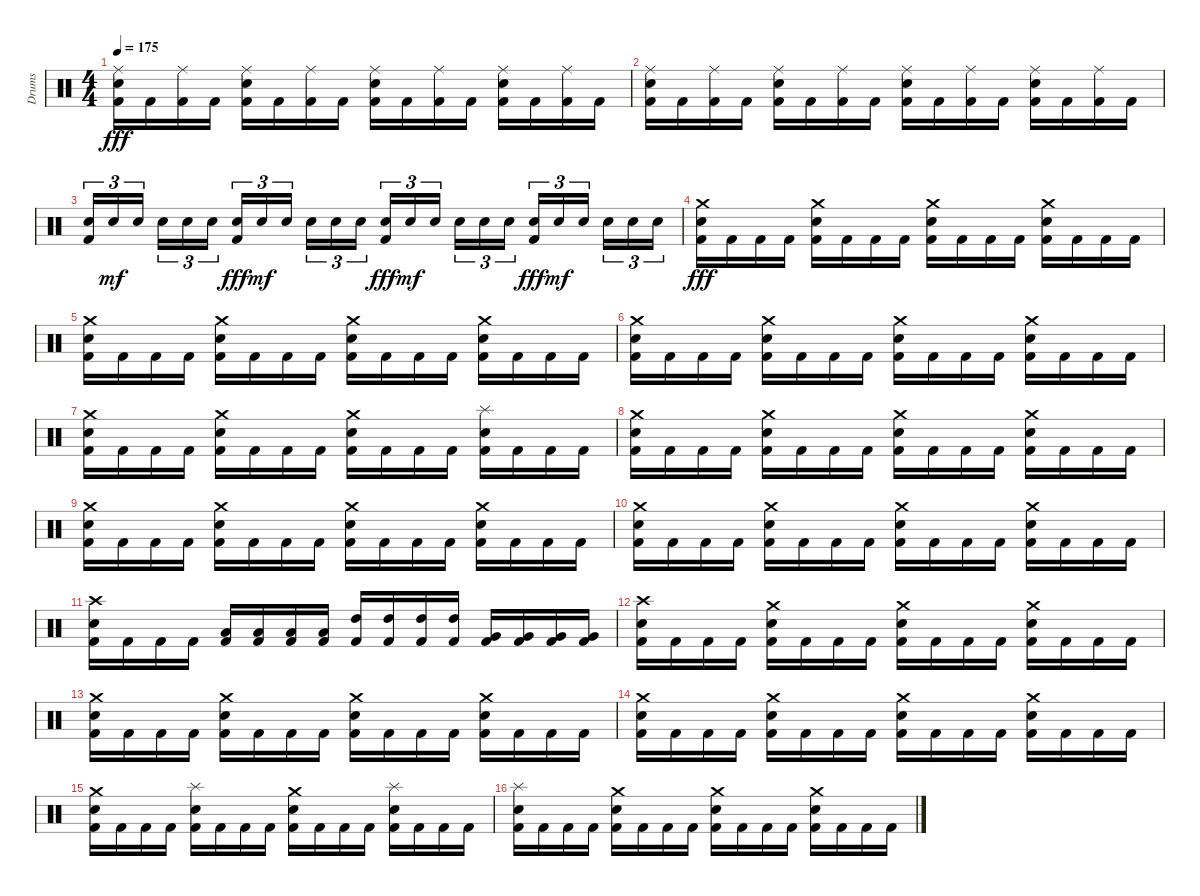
\track ("Drums" "Drums") {instrument percussion}
\staff {score}
\articulation defaults
\ts (4 4)
\tempo 175
\clef neutral
\ks c
("Ride (middle)" "Electric Snare (hit)" "Kick (hit) 2").16{dy fff} "Kick (hit) 2".16 ("Ride (middle)" "Kick (hit) 2").16 "Kick (hit) 2".16 ("Ride (middle)" "Electric Snare (hit)" "Kick (hit) 2").16 "Kick (hit) 2".16 ("Ride (middle)" "Kick (hit) 2").16 "Kick (hit) 2".16 ("Ride (middle)" "Electric Snare (hit)" "Kick (hit) 2").16 "Kick (hit) 2".16 ("Ride (middle)" "Kick (hit) 2").16 "Kick (hit) 2".16 ("Ride (middle)" "Electric Snare (hit)" "Kick (hit) 2").16 "Kick (hit) 2".16 ("Ride (middle)" "Kick (hit) 2").16 "Kick (hit) 2".16 |
("Ride (middle)" "Electric Snare (hit)" "Kick (hit) 2").16 "Kick (hit) 2".16 ("Ride (middle)" "Kick (hit) 2").16 "Kick (hit) 2".16 ("Ride (middle)" "Electric Snare (hit)" "Kick (hit) 2").16 "Kick (hit) 2".16 ("Ride (middle)" "Kick (hit) 2").16 "Kick (hit) 2".16 ("Ride (middle)" "Electric Snare (hit)" "Kick (hit) 2").16 "Kick (hit) 2".16 ("Ride (middle)" "Kick (hit) 2").16 "Kick (hit) 2".16 ("Ride (middle)" "Electric Snare (hit)" "Kick (hit) 2").16 "Kick (hit) 2".16 ("Ride (middle)" "Kick (hit) 2").16 "Kick (hit) 2".16 |
("Electric Snare (hit)" "Kick (hit) 2").16{tu (3 2)} "Electric Snare (hit)".16{tu (3 2) dy mf} "Electric Snare (hit)".16{tu (3 2) beam splitsecondary} "Electric Snare (hit)".16{tu (3 2)} "Electric Snare (hit)".16{tu (3 2)} "Electric Snare (hit)".16{tu (3 2)} ("Electric Snare (hit)" "Kick (hit) 2").16{tu (3 2) dy fff} "Electric Snare (hit)".16{tu (3 2) dy mf} "Electric Snare (hit)".16{tu (3 2) beam splitsecondary} "Electric Snare (hit)".16{tu (3 2)} "Electric Snare (hit)".16{tu (3 2)} "Electric Snare (hit)".16{tu (3 2)} ("Electric Snare (hit)" "Kick (hit) 2").16{tu (3 2) dy fff} "Electric Snare (hit)".16{tu (3 2) dy mf} "Electric Snare (hit)".16{tu (3 2) beam splitsecondary} "Electric Snare (hit)".16{tu (3 2)} "Electric Snare (hit)".16{tu (3 2)} "Electric Snare (hit)".16{tu (3 2)} ("Electric Snare (hit)" "Kick (hit) 2").16{tu (3 2) dy fff} "Electric Snare (hit)".16{tu (3 2) dy mf} "Electric Snare (hit)".16{tu (3 2) beam splitsecondary} "Electric Snare (hit)".16{tu (3 2)} "Electric Snare (hit)".16{tu (3 2)} "Electric Snare (hit)".16{tu (3 2)} |
("Crash medium (hit)" "Electric Snare (hit)" "Kick (hit) 2").16{dy fff} "Kick (hit) 2".16 "Kick (hit) 2".16 "Kick (hit) 2".16 ("Crash medium (hit)" "Electric Snare (hit)" "Kick (hit) 2").16 "Kick (hit) 2".16 "Kick (hit) 2".16 "Kick (hit) 2".16 ("Crash medium (hit)" "Electric Snare (hit)" "Kick (hit) 2").16 "Kick (hit) 2".16 "Kick (hit) 2".16 "Kick (hit) 2".16 ("Crash medium (hit)" "Electric Snare (hit)" "Kick (hit) 2").16 "Kick (hit) 2".16 "Kick (hit) 2".16 "Kick (hit) 2".16 |
("Crash medium (hit)" "Electric Snare (hit)" "Kick (hit) 2").16 "Kick (hit) 2".16 "Kick (hit) 2".16 "Kick (hit) 2".16 ("Crash medium (hit)" "Electric Snare (hit)" "Kick (hit) 2").16 "Kick (hit) 2".16 "Kick (hit) 2".16 "Kick (hit) 2".16 ("Crash medium (hit)" "Electric Snare (hit)" "Kick (hit) 2").16 "Kick (hit) 2".16 "Kick (hit) 2".16 "Kick (hit) 2".16 ("Crash medium (hit)" "Electric Snare (hit)" "Kick (hit) 2").16 "Kick (hit) 2".16 "Kick (hit) 2".16 "Kick (hit) 2".16 |
("Crash medium (hit)" "Electric Snare (hit)" "Kick (hit) 2").16 "Kick (hit) 2".16 "Kick (hit) 2".16 "Kick (hit) 2".16 ("Crash medium (hit)" "Electric Snare (hit)" "Kick (hit) 2").16 "Kick (hit) 2".16 "Kick (hit) 2".16 "Kick (hit) 2".16 ("Crash medium (hit)" "Electric Snare (hit)" "Kick (hit) 2").16 "Kick (hit) 2".16 "Kick (hit) 2".16 "Kick (hit) 2".16 ("Crash medium (hit)" "Electric Snare (hit)" "Kick (hit) 2").16 "Kick (hit) 2".16 "Kick (hit) 2".16 "Kick (hit) 2".16 |
("Crash medium (hit)" "Electric Snare (hit)" "Kick (hit) 2").16 "Kick (hit) 2".16 "Kick (hit) 2".16 "Kick (hit) 2".16 ("Crash medium (hit)" "Electric Snare (hit)" "Kick (hit) 2").16 "Kick (hit) 2".16 "Kick (hit) 2".16 "Kick (hit) 2".16 ("Crash medium (hit)" "Electric Snare (hit)" "Kick (hit) 2").16 "Kick (hit) 2".16 "Kick (hit) 2".16 "Kick (hit) 2".16 ("Splash (hit)" "Electric Snare (hit)" "Kick (hit) 2").16 "Kick (hit) 2".16 "Kick (hit) 2".16 "Kick (hit) 2".16 |
("Crash medium (hit)" "Electric Snare (hit)" "Kick (hit) 2").16 "Kick (hit) 2".16 "Kick (hit) 2".16 "Kick (hit) 2".16 ("Crash medium (hit)" "Electric Snare (hit)" "Kick (hit) 2").16 "Kick (hit) 2".16 "Kick (hit) 2".16 "Kick (hit) 2".16 ("Crash medium (hit)" "Electric Snare (hit)" "Kick (hit) 2").16 "Kick (hit) 2".16 "Kick (hit) 2".16 "Kick (hit) 2".16 ("Crash medium (hit)" "Electric Snare (hit)" "Kick (hit) 2").16 "Kick (hit) 2".16 "Kick (hit) 2".16 "Kick (hit) 2".16 |
("Crash medium (hit)" "Electric Snare (hit)" "Kick (hit) 2").16 "Kick (hit) 2".16 "Kick (hit) 2".16 "Kick (hit) 2".16 ("Crash medium (hit)" "Electric Snare (hit)" "Kick (hit) 2").16 "Kick (hit) 2".16 "Kick (hit) 2".16 "Kick (hit) 2".16 ("Crash medium (hit)" "Electric Snare (hit)" "Kick (hit) 2").16 "Kick (hit) 2".16 "Kick (hit) 2".16 "Kick (hit) 2".16 ("Crash medium (hit)" "Electric Snare (hit)" "Kick (hit) 2").16 "Kick (hit) 2".16 "Kick (hit) 2".16 "Kick (hit) 2".16 |
("Crash medium (hit)" "Electric Snare (hit)" "Kick (hit) 2").16 "Kick (hit) 2".16 "Kick (hit) 2".16 "Kick (hit) 2".16 ("Crash medium (hit)" "Electric Snare (hit)" "Kick (hit) 2").16 "Kick (hit) 2".16 "Kick (hit) 2".16 "Kick (hit) 2".16 ("Crash medium (hit)" "Electric Snare (hit)" "Kick (hit) 2").16 "Kick (hit) 2".16 "Kick (hit) 2".16 "Kick (hit) 2".16 ("Crash medium (hit)" "Electric Snare (hit)" "Kick (hit) 2").16 "Kick (hit) 2".16 "Kick (hit) 2".16 "Kick (hit) 2".16 |
("Crash high (hit)" "Electric Snare (hit)" "Kick (hit) 2").16 "Kick (hit) 2".16 "Kick (hit) 2".16 "Kick (hit) 2".16 ("Low Tom (hit)" "Kick (hit) 2").16 ("Low Tom (hit)" "Kick (hit) 2").16 ("Low Tom (hit)" "Kick (hit) 2").16 ("Low Tom (hit)" "Kick (hit) 2").16 ("High Tom (hit)" "Kick (hit) 2").16 ("High Tom (hit)" "Kick (hit) 2").16 ("High Tom (hit)" "Kick (hit) 2").16 ("High Tom (hit)" "Kick (hit) 2").16 ("Very Low Tom (hit)" "Kick (hit) 2").16 ("Very Low Tom (hit)" "Kick (hit) 2").16 ("Very Low Tom (hit)" "Kick (hit) 2").16 ("Very Low Tom (hit)" "Kick (hit) 2").16 |
("Crash high (hit)" "Electric Snare (hit)" "Kick (hit) 2").16 "Kick (hit) 2".16 "Kick (hit) 2".16 "Kick (hit) 2".16 ("Crash medium (hit)" "Electric Snare (hit)" "Kick (hit) 2").16 "Kick (hit) 2".16 "Kick (hit) 2".16 "Kick (hit) 2".16 ("Crash medium (hit)" "Electric Snare (hit)" "Kick (hit) 2").16 "Kick (hit) 2".16 "Kick (hit) 2".16 "Kick (hit) 2".16 ("Crash medium (hit)" "Electric Snare (hit)" "Kick (hit) 2").16 "Kick (hit) 2".16 "Kick (hit) 2".16 "Kick (hit) 2".16 |
("Crash medium (hit)" "Electric Snare (hit)" "Kick (hit) 2").16 "Kick (hit) 2".16 "Kick (hit) 2".16 "Kick (hit) 2".16 ("Crash medium (hit)" "Electric Snare (hit)" "Kick (hit) 2").16 "Kick (hit) 2".16 "Kick (hit) 2".16 "Kick (hit) 2".16 ("Crash medium (hit)" "Electric Snare (hit)" "Kick (hit) 2").16 "Kick (hit) 2".16 "Kick (hit) 2".16 "Kick (hit) 2".16 ("Crash medium (hit)" "Electric Snare (hit)" "Kick (hit) 2").16 "Kick (hit) 2".16 "Kick (hit) 2".16 "Kick (hit) 2".16 |
("Crash medium (hit)" "Electric Snare (hit)" "Kick (hit) 2").16 "Kick (hit) 2".16 "Kick (hit) 2".16 "Kick (hit) 2".16 ("Crash medium (hit)" "Electric Snare (hit)" "Kick (hit) 2").16 "Kick (hit) 2".16 "Kick (hit) 2".16 "Kick (hit) 2".16 ("Crash medium (hit)" "Electric Snare (hit)" "Kick (hit) 2").16 "Kick (hit) 2".16 "Kick (hit) 2".16 "Kick (hit) 2".16 ("Crash medium (hit)" "Electric Snare (hit)" "Kick (hit) 2").16 "Kick (hit) 2".16 "Kick (hit) 2".16 "Kick (hit) 2".16 |
("Crash medium (hit)" "Electric Snare (hit)" "Kick (hit) 2").16 "Kick (hit) 2".16 "Kick (hit) 2".16 "Kick (hit) 2".16 ("Splash (hit)" "Electric Snare (hit)" "Kick (hit) 2").16 "Kick (hit) 2".16 "Kick (hit) 2".16 "Kick (hit) 2".16 ("Crash medium (hit)" "Electric Snare (hit)" "Kick (hit) 2").16 "Kick (hit) 2".16 "Kick (hit) 2".16 "Kick (hit) 2".16 ("Splash (hit)" "Electric Snare (hit)" "Kick (hit) 2").16 "Kick (hit) 2".16 "Kick (hit) 2".16 "Kick (hit) 2".16 |
("Splash (hit)" "Electric Snare (hit)" "Kick (hit) 2").16 "Kick (hit) 2".16 "Kick (hit) 2".16 "Kick (hit) 2".16 ("Crash medium (hit)" "Electric Snare (hit)" "Kick (hit) 2").16 "Kick (hit) 2".16 "Kick (hit) 2".16 "Kick (hit) 2".16 ("Crash medium (hit)" "Electric Snare (hit)" "Kick (hit) 2").16 "Kick (hit) 2".16 "Kick (hit) 2".16 "Kick (hit) 2".16 ("Crash medium (hit)" "Electric Snare (hit)" "Kick (hit) 2").16 "Kick (hit) 2".16 "Kick (hit) 2".16 "Kick (hit) 2".16
